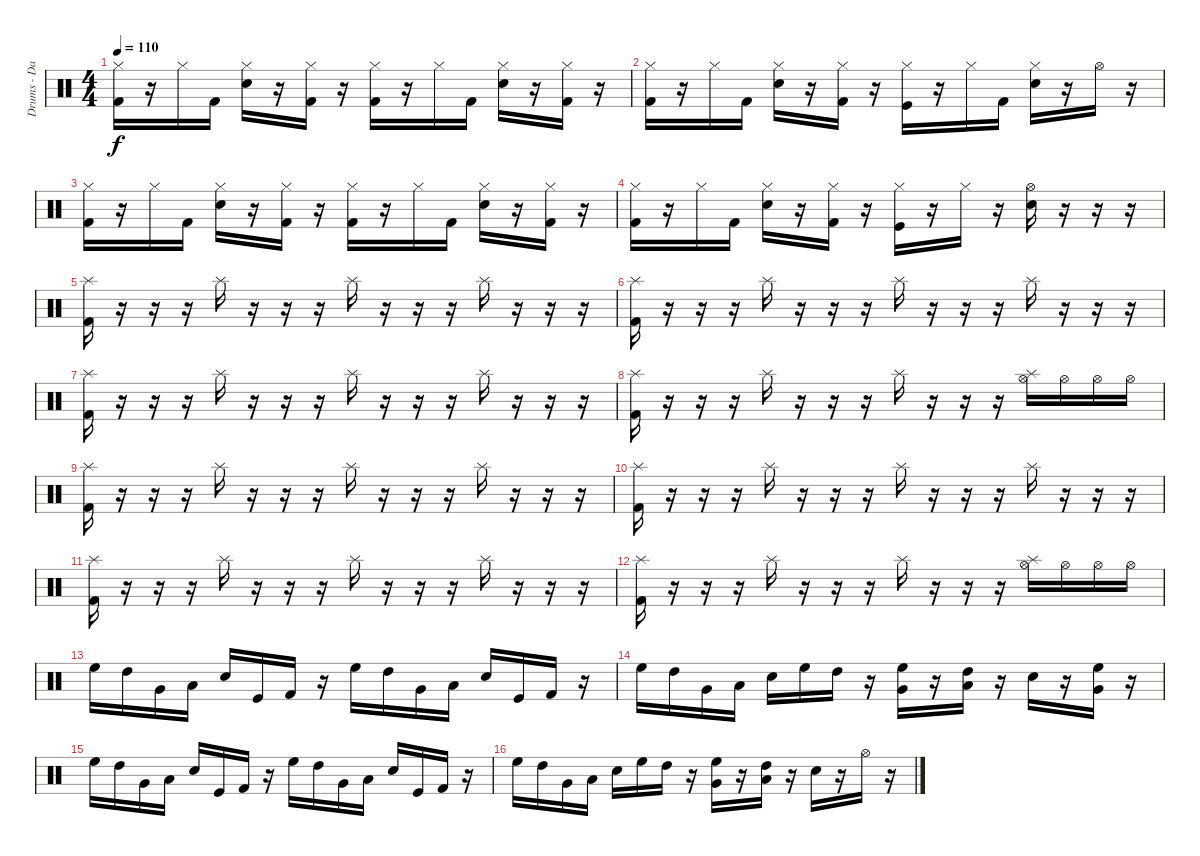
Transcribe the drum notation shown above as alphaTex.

\track ("Drums - David" "Drums - Da") {instrument percussion}
\staff {score}
\articulation defaults
\ts (4 4)
\tempo 110
\clef neutral
\ks c
("Hi-Hat (closed)" "Kick (hit) 2").16{dy f} r.16 "Hi-Hat (closed)".16 "Kick (hit) 2".16 ("Hi-Hat (closed)" "Snare (hit) 2").16 r.16 ("Hi-Hat (closed)" "Kick (hit) 2").16 r.16 ("Hi-Hat (closed)" "Kick (hit) 2").16 r.16 "Hi-Hat (closed)".16 "Kick (hit) 2".16 ("Hi-Hat (closed)" "Snare (hit) 2").16 r.16 ("Hi-Hat (closed)" "Kick (hit) 2").16 r.16 |
("Hi-Hat (closed)" "Kick (hit) 2").16 r.16 "Hi-Hat (closed)".16 "Kick (hit) 2".16 ("Hi-Hat (closed)" "Snare (hit) 2").16 r.16 ("Hi-Hat (closed)" "Kick (hit) 2").16 r.16 ("Hi-Hat (closed)" "Kick (hit)").16 r.16 "Hi-Hat (closed)".16 "Kick (hit) 2".16 ("Hi-Hat (closed)" "Snare (hit) 2").16 r.16 "Hi-Hat (open)".16 r.16 |
("Hi-Hat (closed)" "Kick (hit) 2").16 r.16 "Hi-Hat (closed)".16 "Kick (hit) 2".16 ("Hi-Hat (closed)" "Snare (hit) 2").16 r.16 ("Hi-Hat (closed)" "Kick (hit) 2").16 r.16 ("Hi-Hat (closed)" "Kick (hit) 2").16 r.16 "Hi-Hat (closed)".16 "Kick (hit) 2".16 ("Hi-Hat (closed)" "Snare (hit) 2").16 r.16 ("Hi-Hat (closed)" "Kick (hit) 2").16 r.16 |
("Hi-Hat (closed)" "Kick (hit) 2").16 r.16 "Hi-Hat (closed)".16 "Kick (hit) 2".16 ("Hi-Hat (closed)" "Snare (hit) 2").16 r.16 ("Hi-Hat (closed)" "Kick (hit) 2").16 r.16 ("Hi-Hat (closed)" "Kick (hit)").16 r.16 "Hi-Hat (closed)".16 r.16 ("Hi-Hat (open)" "Snare (hit) 2").16 r.16 r.16 r.16 |
("Splash (hit)" "Kick (hit) 2").16 r.16 r.16 r.16 "Splash (hit)".16 r.16 r.16 r.16 "Splash (hit)".16 r.16 r.16 r.16 "Splash (hit)".16 r.16 r.16 r.16 |
("Splash (hit)" "Kick (hit) 2").16 r.16 r.16 r.16 "Splash (hit)".16 r.16 r.16 r.16 "Splash (hit)".16 r.16 r.16 r.16 "Splash (hit)".16 r.16 r.16 r.16 |
("Splash (hit)" "Kick (hit) 2").16 r.16 r.16 r.16 "Splash (hit)".16 r.16 r.16 r.16 "Splash (hit)".16 r.16 r.16 r.16 "Splash (hit)".16 r.16 r.16 r.16 |
("Splash (hit)" "Kick (hit) 2").16 r.16 r.16 r.16 "Splash (hit)".16 r.16 r.16 r.16 "Splash (hit)".16 r.16 r.16 r.16 ("Splash (hit)" "Hi-Hat (open)").16 "Hi-Hat (open)".16 "Hi-Hat (open)".16 "Hi-Hat (open)".16 |
("Splash (hit)" "Kick (hit) 2").16 r.16 r.16 r.16 "Splash (hit)".16 r.16 r.16 r.16 "Splash (hit)".16 r.16 r.16 r.16 "Splash (hit)".16 r.16 r.16 r.16 |
("Splash (hit)" "Kick (hit) 2").16 r.16 r.16 r.16 "Splash (hit)".16 r.16 r.16 r.16 "Splash (hit)".16 r.16 r.16 r.16 "Splash (hit)".16 r.16 r.16 r.16 |
("Splash (hit)" "Kick (hit) 2").16 r.16 r.16 r.16 "Splash (hit)".16 r.16 r.16 r.16 "Splash (hit)".16 r.16 r.16 r.16 "Splash (hit)".16 r.16 r.16 r.16 |
("Splash (hit)" "Kick (hit) 2").16 r.16 r.16 r.16 "Splash (hit)".16 r.16 r.16 r.16 "Splash (hit)".16 r.16 r.16 r.16 ("Splash (hit)" "Hi-Hat (open)").16 "Hi-Hat (open)".16 "Hi-Hat (open)".16 "Hi-Hat (open)".16 |
"High Floor Tom (hit)".16 "High Tom (hit)".16 "Very Low Tom (hit)".16 "Low Floor Tom (hit)".16 "Snare (hit) 2".16 "Kick (hit)".16 "Kick (hit) 2".16 r.16 "High Floor Tom (hit)".16 "High Tom (hit)".16 "Very Low Tom (hit)".16 "Low Floor Tom (hit)".16 "Snare (hit) 2".16 "Kick (hit)".16 "Kick (hit) 2".16 r.16 |
"High Floor Tom (hit)".16 "High Tom (hit)".16 "Very Low Tom (hit)".16 "Low Floor Tom (hit)".16 "Snare (hit) 2".16 "High Floor Tom (hit)".16 "High Tom (hit)".16 r.16 ("High Floor Tom (hit)" "Very Low Tom (hit)").16 r.16 ("High Tom (hit)" "Low Floor Tom (hit)").16 r.16 "Snare (hit) 2".16 r.16 ("High Floor Tom (hit)" "Very Low Tom (hit)").16 r.16 |
"High Floor Tom (hit)".16 "High Tom (hit)".16 "Very Low Tom (hit)".16 "Low Floor Tom (hit)".16 "Snare (hit) 2".16 "Kick (hit)".16 "Kick (hit) 2".16 r.16 "High Floor Tom (hit)".16 "High Tom (hit)".16 "Very Low Tom (hit)".16 "Low Floor Tom (hit)".16 "Snare (hit) 2".16 "Kick (hit)".16 "Kick (hit) 2".16 r.16 |
"High Floor Tom (hit)".16 "High Tom (hit)".16 "Very Low Tom (hit)".16 "Low Floor Tom (hit)".16 "Snare (hit) 2".16 "High Floor Tom (hit)".16 "High Tom (hit)".16 r.16 ("High Floor Tom (hit)" "Very Low Tom (hit)").16 r.16 ("High Tom (hit)" "Low Floor Tom (hit)").16 r.16 "Snare (hit) 2".16 r.16 "Hi-Hat (open)".16 r.16
